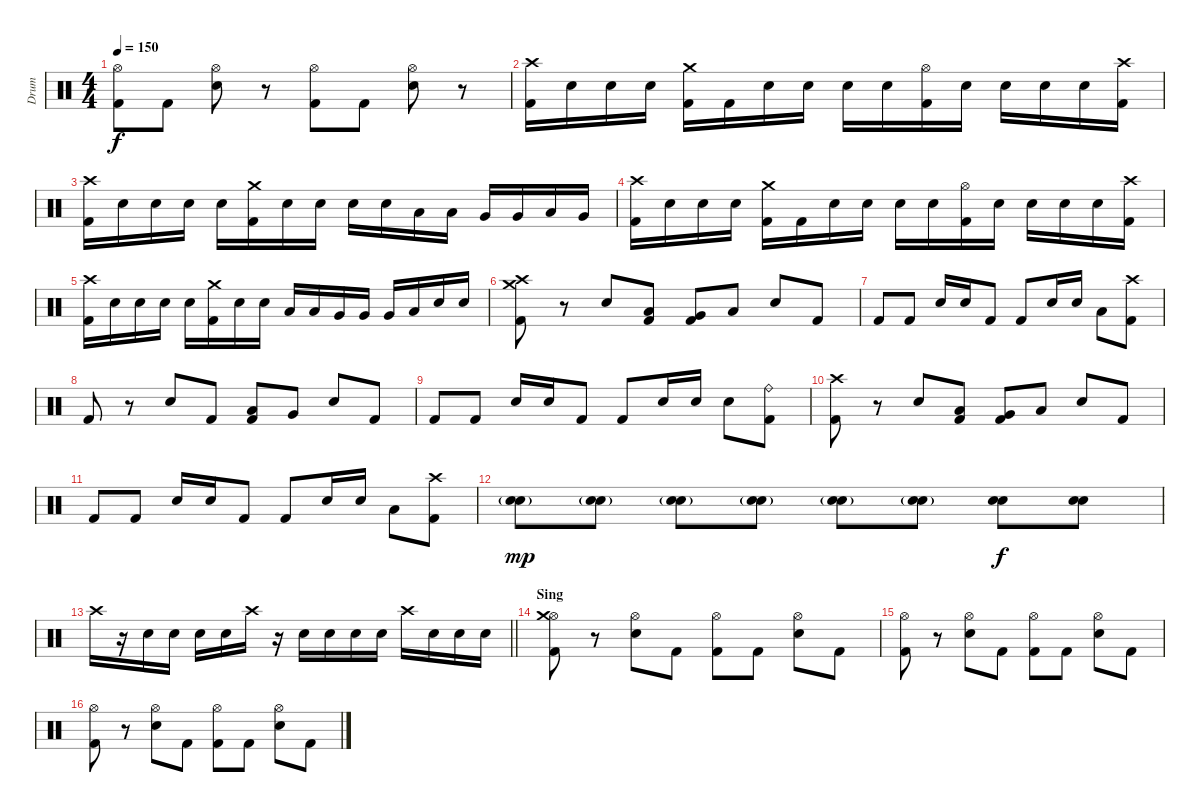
\track ("Drum" "Drum") {instrument percussion}
\staff {score}
\articulation defaults
\ts (4 4)
\tempo 150
\clef neutral
\ks c
("Hi-Hat (open)" "Kick (hit) 2").8{dy f} "Kick (hit) 2".8 ("Hi-Hat (open)" "Electric Snare (hit)").8 r.8 ("Hi-Hat (open)" "Kick (hit) 2").8 "Kick (hit) 2".8 ("Hi-Hat (open)" "Electric Snare (hit)").8 r.8 |
("Crash high (hit)" "Kick (hit) 2").16 "Electric Snare (hit)".16 "Electric Snare (hit)".16 "Electric Snare (hit)".16 ("Crash medium (hit)" "Kick (hit) 2").16 "Kick (hit) 2".16 "Electric Snare (hit)".16 "Electric Snare (hit)".16 "Electric Snare (hit)".16 "Electric Snare (hit)".16 ("Hi-Hat (open)" "Kick (hit) 2").16 "Electric Snare (hit)".16 "Electric Snare (hit)".16 "Electric Snare (hit)".16 "Electric Snare (hit)".16 ("Crash high (hit)" "Kick (hit) 2").16 |
("Crash high (hit)" "Kick (hit) 2").16 "Electric Snare (hit)".16 "Electric Snare (hit)".16 "Electric Snare (hit)".16 "Electric Snare (hit)".16 ("Crash medium (hit)" "Kick (hit) 2").16 "Electric Snare (hit)".16 "Electric Snare (hit)".16 "Electric Snare (hit)".16 "Electric Snare (hit)".16 "Low Floor Tom (hit)".16 "Low Floor Tom (hit)".16 "Very Low Tom (hit)".16 "Very Low Tom (hit)".16 "Low Floor Tom (hit)".16 "Very Low Tom (hit)".16 |
("Crash high (hit)" "Kick (hit) 2").16 "Electric Snare (hit)".16 "Electric Snare (hit)".16 "Electric Snare (hit)".16 ("Crash medium (hit)" "Kick (hit) 2").16 "Kick (hit) 2".16 "Electric Snare (hit)".16 "Electric Snare (hit)".16 "Electric Snare (hit)".16 "Electric Snare (hit)".16 ("Hi-Hat (open)" "Kick (hit) 2").16 "Electric Snare (hit)".16 "Electric Snare (hit)".16 "Electric Snare (hit)".16 "Electric Snare (hit)".16 ("Crash high (hit)" "Kick (hit) 2").16 |
("Crash high (hit)" "Kick (hit) 2").16 "Electric Snare (hit)".16 "Electric Snare (hit)".16 "Electric Snare (hit)".16 "Electric Snare (hit)".16 ("Crash medium (hit)" "Kick (hit) 2").16 "Electric Snare (hit)".16 "Electric Snare (hit)".16 "Low Floor Tom (hit)".16 "Low Floor Tom (hit)".16 "Very Low Tom (hit)".16 "Very Low Tom (hit)".16 "Very Low Tom (hit)".16 "Low Floor Tom (hit)".16 "Electric Snare (hit)".16 "Electric Snare (hit)".16 |
("Crash high (hit)" "Crash medium (hit)" "Kick (hit) 2").8 r.8 "Electric Snare (hit)".8 ("Kick (hit) 2" "Low Floor Tom (hit)").8 ("Kick (hit) 2" "Very Low Tom (hit)").8 "Low Floor Tom (hit)".8 "Electric Snare (hit)".8 "Kick (hit) 2".8 |
"Kick (hit) 2".8 "Kick (hit) 2".8 "Electric Snare (hit)".16 "Electric Snare (hit)".16 "Kick (hit) 2".8 "Kick (hit) 2".8 "Electric Snare (hit)".16 "Electric Snare (hit)".16 "Low Floor Tom (hit)".8 ("Crash high (hit)" "Kick (hit) 2").8 |
"Kick (hit) 2".8 r.8 "Electric Snare (hit)".8 "Kick (hit) 2".8 ("Kick (hit) 2" "Low Floor Tom (hit)").8 "Very Low Tom (hit)".8 "Electric Snare (hit)".8 "Kick (hit) 2".8 |
"Kick (hit) 2".8 "Kick (hit) 2".8 "Electric Snare (hit)".16 "Electric Snare (hit)".16 "Kick (hit) 2".8 "Kick (hit) 2".8 "Electric Snare (hit)".16 "Electric Snare (hit)".16 "Electric Snare (hit)".8 ("Ride (bell)" "Kick (hit) 2").8 |
("Crash high (hit)" "Kick (hit) 2").8 r.8 "Electric Snare (hit)".8 ("Kick (hit) 2" "Low Floor Tom (hit)").8 ("Kick (hit) 2" "Very Low Tom (hit)").8 "Low Floor Tom (hit)".8 "Electric Snare (hit)".8 "Kick (hit) 2".8 |
"Kick (hit) 2".8 "Kick (hit) 2".8 "Electric Snare (hit)".16 "Electric Snare (hit)".16 "Kick (hit) 2".8 "Kick (hit) 2".8 "Electric Snare (hit)".16 "Electric Snare (hit)".16 "Low Floor Tom (hit)".8 ("Crash high (hit)" "Kick (hit) 2").8 |
("Electric Snare (hit)"{g} "Electric Snare (hit)"{g}).8{dy mp} ("Electric Snare (hit)"{g} "Electric Snare (hit)"{g}).8 ("Electric Snare (hit)"{g} "Electric Snare (hit)"{g}).8 ("Electric Snare (hit)"{g} "Electric Snare (hit)"{g}).8 ("Electric Snare (hit)"{g} "Electric Snare (hit)"{g}).8 ("Electric Snare (hit)"{g} "Electric Snare (hit)"{g}).8 ("Electric Snare (hit)" "Electric Snare (hit)").8{dy f} ("Electric Snare (hit)" "Electric Snare (hit)").8 |
\barLineRight lightlight "Crash high (hit)".16
r.16 "Electric Snare (hit)".16 "Electric Snare (hit)".16 "Electric Snare (hit)".16 "Electric Snare (hit)".16 "Crash high (hit)".16 r.16 "Electric Snare (hit)".16 "Electric Snare (hit)".16 "Electric Snare (hit)".16 "Electric Snare (hit)".16 "Crash high (hit)".16 "Electric Snare (hit)".16 "Electric Snare (hit)".16 "Electric Snare (hit)".16 |
\section ("" "Sing")
("Hi-Hat (open)" "Kick (hit) 2" "Crash medium (hit)").8 r.8 ("Hi-Hat (open)" "Electric Snare (hit)").8 "Kick (hit) 2".8 ("Hi-Hat (open)" "Kick (hit) 2").8 "Kick (hit) 2".8 ("Hi-Hat (open)" "Electric Snare (hit)").8 "Kick (hit) 2".8 |
("Hi-Hat (open)" "Kick (hit) 2").8 r.8 ("Hi-Hat (open)" "Electric Snare (hit)").8 "Kick (hit) 2".8 ("Hi-Hat (open)" "Kick (hit) 2").8 "Kick (hit) 2".8 ("Hi-Hat (open)" "Electric Snare (hit)").8 "Kick (hit) 2".8 |
("Hi-Hat (open)" "Kick (hit) 2").8 r.8 ("Hi-Hat (open)" "Electric Snare (hit)").8 "Kick (hit) 2".8 ("Hi-Hat (open)" "Kick (hit) 2").8 "Kick (hit) 2".8 ("Hi-Hat (open)" "Electric Snare (hit)").8 "Kick (hit) 2".8
